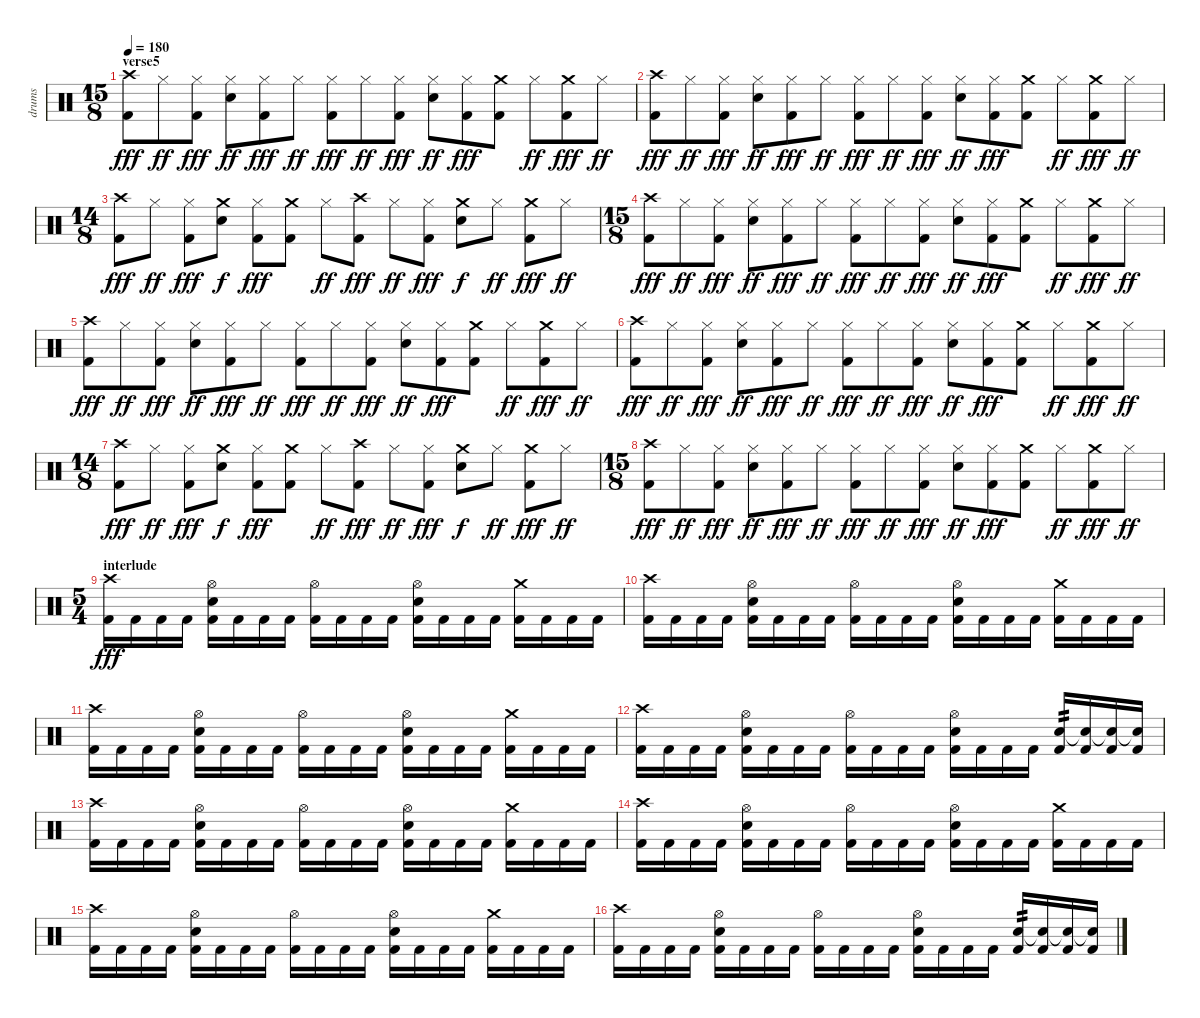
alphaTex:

\track ("drums" "drums") {instrument percussion}
\staff {score}
\articulation defaults
\ts (15 8)
\section ("" "verse5")
\tempo 180
\clef neutral
\ks c
("Crash high (hit)" "Kick (hit) 2").8{dy fff} "Hi-Hat (closed)".8{dy ff} ("Hi-Hat (closed)" "Kick (hit) 2").8{dy fff} ("Hi-Hat (closed)" "Snare (hit) 2").8{dy ff} ("Hi-Hat (closed)" "Kick (hit) 2").8{dy fff} "Hi-Hat (closed)".8{dy ff} ("Hi-Hat (closed)" "Kick (hit) 2").8{dy fff} "Hi-Hat (closed)".8{dy ff} ("Hi-Hat (closed)" "Kick (hit) 2").8{dy fff} ("Hi-Hat (closed)" "Snare (hit) 2").8{dy ff} ("Hi-Hat (closed)" "Kick (hit) 2").8{dy fff} ("Crash medium (hit)" "Kick (hit) 2").8 "Hi-Hat (closed)".8{dy ff} ("Crash medium (hit)" "Kick (hit) 2").8{dy fff} "Hi-Hat (closed)".8{dy ff} |
("Crash high (hit)" "Kick (hit) 2").8{dy fff} "Hi-Hat (closed)".8{dy ff} ("Hi-Hat (closed)" "Kick (hit) 2").8{dy fff} ("Hi-Hat (closed)" "Snare (hit) 2").8{dy ff} ("Hi-Hat (closed)" "Kick (hit) 2").8{dy fff} "Hi-Hat (closed)".8{dy ff} ("Hi-Hat (closed)" "Kick (hit) 2").8{dy fff} "Hi-Hat (closed)".8{dy ff} ("Hi-Hat (closed)" "Kick (hit) 2").8{dy fff} ("Hi-Hat (closed)" "Snare (hit) 2").8{dy ff} ("Hi-Hat (closed)" "Kick (hit) 2").8{dy fff} ("Crash medium (hit)" "Kick (hit) 2").8 "Hi-Hat (closed)".8{dy ff} ("Crash medium (hit)" "Kick (hit) 2").8{dy fff} "Hi-Hat (closed)".8{dy ff} |
\ts (14 8)
("Crash high (hit)" "Kick (hit) 2").8{dy fff} "Hi-Hat (closed)".8{dy ff} ("Hi-Hat (closed)" "Kick (hit) 2").8{dy fff} ("Crash medium (hit)" "Snare (hit) 2").8{dy f} ("Hi-Hat (closed)" "Kick (hit) 2").8{dy fff} ("Crash medium (hit)" "Kick (hit) 2").8 "Hi-Hat (closed)".8{dy ff} ("Crash high (hit)" "Kick (hit) 2").8{dy fff} "Hi-Hat (closed)".8{dy ff} ("Hi-Hat (closed)" "Kick (hit) 2").8{dy fff} ("Crash medium (hit)" "Snare (hit) 2").8{dy f} "Hi-Hat (closed)".8{dy ff} ("Crash medium (hit)" "Kick (hit) 2").8{dy fff} "Hi-Hat (closed)".8{dy ff} |
\ts (15 8)
("Crash high (hit)" "Kick (hit) 2").8{dy fff} "Hi-Hat (closed)".8{dy ff} ("Hi-Hat (closed)" "Kick (hit) 2").8{dy fff} ("Hi-Hat (closed)" "Snare (hit) 2").8{dy ff} ("Hi-Hat (closed)" "Kick (hit) 2").8{dy fff} "Hi-Hat (closed)".8{dy ff} ("Hi-Hat (closed)" "Kick (hit) 2").8{dy fff} "Hi-Hat (closed)".8{dy ff} ("Hi-Hat (closed)" "Kick (hit) 2").8{dy fff} ("Hi-Hat (closed)" "Snare (hit) 2").8{dy ff} ("Hi-Hat (closed)" "Kick (hit) 2").8{dy fff} ("Crash medium (hit)" "Kick (hit) 2").8 "Hi-Hat (closed)".8{dy ff} ("Crash medium (hit)" "Kick (hit) 2").8{dy fff} "Hi-Hat (closed)".8{dy ff} |
("Crash high (hit)" "Kick (hit) 2").8{dy fff} "Hi-Hat (closed)".8{dy ff} ("Hi-Hat (closed)" "Kick (hit) 2").8{dy fff} ("Hi-Hat (closed)" "Snare (hit) 2").8{dy ff} ("Hi-Hat (closed)" "Kick (hit) 2").8{dy fff} "Hi-Hat (closed)".8{dy ff} ("Hi-Hat (closed)" "Kick (hit) 2").8{dy fff} "Hi-Hat (closed)".8{dy ff} ("Hi-Hat (closed)" "Kick (hit) 2").8{dy fff} ("Hi-Hat (closed)" "Snare (hit) 2").8{dy ff} ("Hi-Hat (closed)" "Kick (hit) 2").8{dy fff} ("Crash medium (hit)" "Kick (hit) 2").8 "Hi-Hat (closed)".8{dy ff} ("Crash medium (hit)" "Kick (hit) 2").8{dy fff} "Hi-Hat (closed)".8{dy ff} |
("Crash high (hit)" "Kick (hit) 2").8{dy fff} "Hi-Hat (closed)".8{dy ff} ("Hi-Hat (closed)" "Kick (hit) 2").8{dy fff} ("Hi-Hat (closed)" "Snare (hit) 2").8{dy ff} ("Hi-Hat (closed)" "Kick (hit) 2").8{dy fff} "Hi-Hat (closed)".8{dy ff} ("Hi-Hat (closed)" "Kick (hit) 2").8{dy fff} "Hi-Hat (closed)".8{dy ff} ("Hi-Hat (closed)" "Kick (hit) 2").8{dy fff} ("Hi-Hat (closed)" "Snare (hit) 2").8{dy ff} ("Hi-Hat (closed)" "Kick (hit) 2").8{dy fff} ("Crash medium (hit)" "Kick (hit) 2").8 "Hi-Hat (closed)".8{dy ff} ("Crash medium (hit)" "Kick (hit) 2").8{dy fff} "Hi-Hat (closed)".8{dy ff} |
\ts (14 8)
("Crash high (hit)" "Kick (hit) 2").8{dy fff} "Hi-Hat (closed)".8{dy ff} ("Hi-Hat (closed)" "Kick (hit) 2").8{dy fff} ("Crash medium (hit)" "Snare (hit) 2").8{dy f} ("Hi-Hat (closed)" "Kick (hit) 2").8{dy fff} ("Crash medium (hit)" "Kick (hit) 2").8 "Hi-Hat (closed)".8{dy ff} ("Crash high (hit)" "Kick (hit) 2").8{dy fff} "Hi-Hat (closed)".8{dy ff} ("Hi-Hat (closed)" "Kick (hit) 2").8{dy fff} ("Crash medium (hit)" "Snare (hit) 2").8{dy f} "Hi-Hat (closed)".8{dy ff} ("Crash medium (hit)" "Kick (hit) 2").8{dy fff} "Hi-Hat (closed)".8{dy ff} |
\ts (15 8)
("Crash high (hit)" "Kick (hit) 2").8{dy fff} "Hi-Hat (closed)".8{dy ff} ("Hi-Hat (closed)" "Kick (hit) 2").8{dy fff} ("Hi-Hat (closed)" "Snare (hit) 2").8{dy ff} ("Hi-Hat (closed)" "Kick (hit) 2").8{dy fff} "Hi-Hat (closed)".8{dy ff} ("Hi-Hat (closed)" "Kick (hit) 2").8{dy fff} "Hi-Hat (closed)".8{dy ff} ("Hi-Hat (closed)" "Kick (hit) 2").8{dy fff} ("Hi-Hat (closed)" "Snare (hit) 2").8{dy ff} ("Hi-Hat (closed)" "Kick (hit) 2").8{dy fff} ("Crash medium (hit)" "Kick (hit) 2").8 "Hi-Hat (closed)".8{dy ff} ("Crash medium (hit)" "Kick (hit) 2").8{dy fff} "Hi-Hat (closed)".8{dy ff} |
\ts (5 4)
\section ("" "interlude")
("Crash high (hit)" "Kick (hit) 2").16{dy fff} "Kick (hit) 2".16 "Kick (hit) 2".16 "Kick (hit) 2".16 ("Hi-Hat (open)" "Snare (hit) 2" "Kick (hit) 2").16 "Kick (hit) 2".16 "Kick (hit) 2".16 "Kick (hit) 2".16 ("Hi-Hat (open)" "Kick (hit) 2").16 "Kick (hit) 2".16 "Kick (hit) 2".16 "Kick (hit) 2".16 ("Hi-Hat (open)" "Snare (hit) 2" "Kick (hit) 2").16 "Kick (hit) 2".16 "Kick (hit) 2".16 "Kick (hit) 2".16 ("Crash medium (hit)" "Kick (hit) 2").16 "Kick (hit) 2".16 "Kick (hit) 2".16 "Kick (hit) 2".16 |
("Crash high (hit)" "Kick (hit) 2").16 "Kick (hit) 2".16 "Kick (hit) 2".16 "Kick (hit) 2".16 ("Hi-Hat (open)" "Snare (hit) 2" "Kick (hit) 2").16 "Kick (hit) 2".16 "Kick (hit) 2".16 "Kick (hit) 2".16 ("Hi-Hat (open)" "Kick (hit) 2").16 "Kick (hit) 2".16 "Kick (hit) 2".16 "Kick (hit) 2".16 ("Hi-Hat (open)" "Snare (hit) 2" "Kick (hit) 2").16 "Kick (hit) 2".16 "Kick (hit) 2".16 "Kick (hit) 2".16 ("Crash medium (hit)" "Kick (hit) 2").16 "Kick (hit) 2".16 "Kick (hit) 2".16 "Kick (hit) 2".16 |
("Crash high (hit)" "Kick (hit) 2").16 "Kick (hit) 2".16 "Kick (hit) 2".16 "Kick (hit) 2".16 ("Hi-Hat (open)" "Snare (hit) 2" "Kick (hit) 2").16 "Kick (hit) 2".16 "Kick (hit) 2".16 "Kick (hit) 2".16 ("Hi-Hat (open)" "Kick (hit) 2").16 "Kick (hit) 2".16 "Kick (hit) 2".16 "Kick (hit) 2".16 ("Hi-Hat (open)" "Snare (hit) 2" "Kick (hit) 2").16 "Kick (hit) 2".16 "Kick (hit) 2".16 "Kick (hit) 2".16 ("Crash medium (hit)" "Kick (hit) 2").16 "Kick (hit) 2".16 "Kick (hit) 2".16 "Kick (hit) 2".16 |
("Crash high (hit)" "Kick (hit) 2").16 "Kick (hit) 2".16 "Kick (hit) 2".16 "Kick (hit) 2".16 ("Hi-Hat (open)" "Snare (hit) 2" "Kick (hit) 2").16 "Kick (hit) 2".16 "Kick (hit) 2".16 "Kick (hit) 2".16 ("Hi-Hat (open)" "Kick (hit) 2").16 "Kick (hit) 2".16 "Kick (hit) 2".16 "Kick (hit) 2".16 ("Hi-Hat (open)" "Snare (hit) 2" "Kick (hit) 2").16 "Kick (hit) 2".16 "Kick (hit) 2".16 "Kick (hit) 2".16 ("Snare (hit) 2" "Kick (hit) 2").16{tp 2} ("Snare (hit)"{t} "Kick (hit) 2").16 ("Snare (hit)"{t} "Kick (hit) 2").16 ("Snare (hit)"{t} "Kick (hit) 2").16 |
("Crash high (hit)" "Kick (hit) 2").16 "Kick (hit) 2".16 "Kick (hit) 2".16 "Kick (hit) 2".16 ("Hi-Hat (open)" "Snare (hit) 2" "Kick (hit) 2").16 "Kick (hit) 2".16 "Kick (hit) 2".16 "Kick (hit) 2".16 ("Hi-Hat (open)" "Kick (hit) 2").16 "Kick (hit) 2".16 "Kick (hit) 2".16 "Kick (hit) 2".16 ("Hi-Hat (open)" "Snare (hit) 2" "Kick (hit) 2").16 "Kick (hit) 2".16 "Kick (hit) 2".16 "Kick (hit) 2".16 ("Crash medium (hit)" "Kick (hit) 2").16 "Kick (hit) 2".16 "Kick (hit) 2".16 "Kick (hit) 2".16 |
("Crash high (hit)" "Kick (hit) 2").16 "Kick (hit) 2".16 "Kick (hit) 2".16 "Kick (hit) 2".16 ("Hi-Hat (open)" "Snare (hit) 2" "Kick (hit) 2").16 "Kick (hit) 2".16 "Kick (hit) 2".16 "Kick (hit) 2".16 ("Hi-Hat (open)" "Kick (hit) 2").16 "Kick (hit) 2".16 "Kick (hit) 2".16 "Kick (hit) 2".16 ("Hi-Hat (open)" "Snare (hit) 2" "Kick (hit) 2").16 "Kick (hit) 2".16 "Kick (hit) 2".16 "Kick (hit) 2".16 ("Crash medium (hit)" "Kick (hit) 2").16 "Kick (hit) 2".16 "Kick (hit) 2".16 "Kick (hit) 2".16 |
("Crash high (hit)" "Kick (hit) 2").16 "Kick (hit) 2".16 "Kick (hit) 2".16 "Kick (hit) 2".16 ("Hi-Hat (open)" "Snare (hit) 2" "Kick (hit) 2").16 "Kick (hit) 2".16 "Kick (hit) 2".16 "Kick (hit) 2".16 ("Hi-Hat (open)" "Kick (hit) 2").16 "Kick (hit) 2".16 "Kick (hit) 2".16 "Kick (hit) 2".16 ("Hi-Hat (open)" "Snare (hit) 2" "Kick (hit) 2").16 "Kick (hit) 2".16 "Kick (hit) 2".16 "Kick (hit) 2".16 ("Crash medium (hit)" "Kick (hit) 2").16 "Kick (hit) 2".16 "Kick (hit) 2".16 "Kick (hit) 2".16 |
("Crash high (hit)" "Kick (hit) 2").16 "Kick (hit) 2".16 "Kick (hit) 2".16 "Kick (hit) 2".16 ("Hi-Hat (open)" "Snare (hit) 2" "Kick (hit) 2").16 "Kick (hit) 2".16 "Kick (hit) 2".16 "Kick (hit) 2".16 ("Hi-Hat (open)" "Kick (hit) 2").16 "Kick (hit) 2".16 "Kick (hit) 2".16 "Kick (hit) 2".16 ("Hi-Hat (open)" "Snare (hit) 2" "Kick (hit) 2").16 "Kick (hit) 2".16 "Kick (hit) 2".16 "Kick (hit) 2".16 ("Snare (hit) 2" "Kick (hit) 2").16{tp 2} ("Snare (hit)"{t} "Kick (hit) 2").16 ("Snare (hit)"{t} "Kick (hit) 2").16 ("Snare (hit)"{t} "Kick (hit) 2").16
